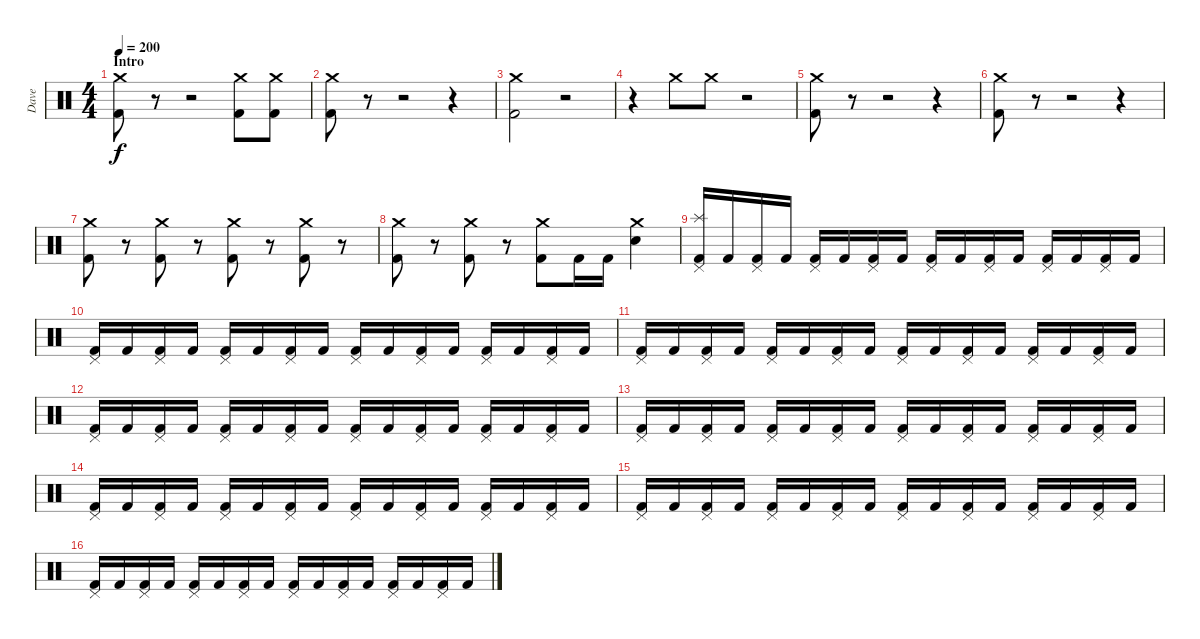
\track ("Dave" "Dave") {instrument percussion}
\staff {score}
\articulation defaults
\ts (4 4)
\section ("" "Intro")
\tempo 200
\clef neutral
\ks c
("Crash medium (hit)" "Kick (hit) 2").8{dy f} r.8 r.2 ("Crash medium (hit)" "Kick (hit) 2").8 ("Crash medium (hit)" "Kick (hit) 2").8 |
("Crash medium (hit)" "Kick (hit) 2").8 r.8 r.2 r.4 |
("Crash medium (hit)" "Kick (hit) 2").2 r.2 |
r.4 "Crash medium (hit)".8 "Crash medium (hit)".8 r.2 |
("Crash medium (hit)" "Kick (hit) 2").8 r.8 r.2 r.4 |
("Crash medium (hit)" "Kick (hit) 2").8 r.8 r.2 r.4 |
("Crash medium (hit)" "Kick (hit) 2").8 r.8 ("Crash medium (hit)" "Kick (hit) 2").8 r.8 ("Crash medium (hit)" "Kick (hit) 2").8 r.8 ("Crash medium (hit)" "Kick (hit) 2").8 r.8 |
("Crash medium (hit)" "Kick (hit) 2").8 r.8 ("Crash medium (hit)" "Kick (hit) 2").8 r.8 ("Crash medium (hit)" "Kick (hit) 2").8 "Kick (hit) 2".16 "Kick (hit) 2".16 ("Crash medium (hit)" "Snare (hit) 2").4 |
("Splash (hit)" "Pedal Hi-Hat (hit)" "Kick (hit) 2").16 "Kick (hit) 2".16 ("Pedal Hi-Hat (hit)" "Kick (hit) 2").16 "Kick (hit) 2".16 ("Pedal Hi-Hat (hit)" "Kick (hit) 2").16 "Kick (hit) 2".16 ("Pedal Hi-Hat (hit)" "Kick (hit) 2").16 "Kick (hit) 2".16 ("Pedal Hi-Hat (hit)" "Kick (hit) 2").16 "Kick (hit) 2".16 ("Pedal Hi-Hat (hit)" "Kick (hit) 2").16 "Kick (hit) 2".16 ("Pedal Hi-Hat (hit)" "Kick (hit) 2").16 "Kick (hit) 2".16 ("Pedal Hi-Hat (hit)" "Kick (hit) 2").16 "Kick (hit) 2".16 |
("Pedal Hi-Hat (hit)" "Kick (hit) 2").16 "Kick (hit) 2".16 ("Pedal Hi-Hat (hit)" "Kick (hit) 2").16 "Kick (hit) 2".16 ("Pedal Hi-Hat (hit)" "Kick (hit) 2").16 "Kick (hit) 2".16 ("Pedal Hi-Hat (hit)" "Kick (hit) 2").16 "Kick (hit) 2".16 ("Pedal Hi-Hat (hit)" "Kick (hit) 2").16 "Kick (hit) 2".16 ("Pedal Hi-Hat (hit)" "Kick (hit) 2").16 "Kick (hit) 2".16 ("Pedal Hi-Hat (hit)" "Kick (hit) 2").16 "Kick (hit) 2".16 ("Pedal Hi-Hat (hit)" "Kick (hit) 2").16 "Kick (hit) 2".16 |
("Pedal Hi-Hat (hit)" "Kick (hit) 2").16 "Kick (hit) 2".16 ("Pedal Hi-Hat (hit)" "Kick (hit) 2").16 "Kick (hit) 2".16 ("Pedal Hi-Hat (hit)" "Kick (hit) 2").16 "Kick (hit) 2".16 ("Pedal Hi-Hat (hit)" "Kick (hit) 2").16 "Kick (hit) 2".16 ("Pedal Hi-Hat (hit)" "Kick (hit) 2").16 "Kick (hit) 2".16 ("Pedal Hi-Hat (hit)" "Kick (hit) 2").16 "Kick (hit) 2".16 ("Pedal Hi-Hat (hit)" "Kick (hit) 2").16 "Kick (hit) 2".16 ("Pedal Hi-Hat (hit)" "Kick (hit) 2").16 "Kick (hit) 2".16 |
("Pedal Hi-Hat (hit)" "Kick (hit) 2").16 "Kick (hit) 2".16 ("Pedal Hi-Hat (hit)" "Kick (hit) 2").16 "Kick (hit) 2".16 ("Pedal Hi-Hat (hit)" "Kick (hit) 2").16 "Kick (hit) 2".16 ("Pedal Hi-Hat (hit)" "Kick (hit) 2").16 "Kick (hit) 2".16 ("Pedal Hi-Hat (hit)" "Kick (hit) 2").16 "Kick (hit) 2".16 ("Pedal Hi-Hat (hit)" "Kick (hit) 2").16 "Kick (hit) 2".16 ("Pedal Hi-Hat (hit)" "Kick (hit) 2").16 "Kick (hit) 2".16 ("Pedal Hi-Hat (hit)" "Kick (hit) 2").16 "Kick (hit) 2".16 |
("Pedal Hi-Hat (hit)" "Kick (hit) 2").16 "Kick (hit) 2".16 ("Pedal Hi-Hat (hit)" "Kick (hit) 2").16 "Kick (hit) 2".16 ("Pedal Hi-Hat (hit)" "Kick (hit) 2").16 "Kick (hit) 2".16 ("Pedal Hi-Hat (hit)" "Kick (hit) 2").16 "Kick (hit) 2".16 ("Pedal Hi-Hat (hit)" "Kick (hit) 2").16 "Kick (hit) 2".16 ("Pedal Hi-Hat (hit)" "Kick (hit) 2").16 "Kick (hit) 2".16 ("Pedal Hi-Hat (hit)" "Kick (hit) 2").16 "Kick (hit) 2".16 ("Pedal Hi-Hat (hit)" "Kick (hit) 2").16 "Kick (hit) 2".16 |
("Pedal Hi-Hat (hit)" "Kick (hit) 2").16 "Kick (hit) 2".16 ("Pedal Hi-Hat (hit)" "Kick (hit) 2").16 "Kick (hit) 2".16 ("Pedal Hi-Hat (hit)" "Kick (hit) 2").16 "Kick (hit) 2".16 ("Pedal Hi-Hat (hit)" "Kick (hit) 2").16 "Kick (hit) 2".16 ("Pedal Hi-Hat (hit)" "Kick (hit) 2").16 "Kick (hit) 2".16 ("Pedal Hi-Hat (hit)" "Kick (hit) 2").16 "Kick (hit) 2".16 ("Pedal Hi-Hat (hit)" "Kick (hit) 2").16 "Kick (hit) 2".16 ("Pedal Hi-Hat (hit)" "Kick (hit) 2").16 "Kick (hit) 2".16 |
("Pedal Hi-Hat (hit)" "Kick (hit) 2").16 "Kick (hit) 2".16 ("Pedal Hi-Hat (hit)" "Kick (hit) 2").16 "Kick (hit) 2".16 ("Pedal Hi-Hat (hit)" "Kick (hit) 2").16 "Kick (hit) 2".16 ("Pedal Hi-Hat (hit)" "Kick (hit) 2").16 "Kick (hit) 2".16 ("Pedal Hi-Hat (hit)" "Kick (hit) 2").16 "Kick (hit) 2".16 ("Pedal Hi-Hat (hit)" "Kick (hit) 2").16 "Kick (hit) 2".16 ("Pedal Hi-Hat (hit)" "Kick (hit) 2").16 "Kick (hit) 2".16 ("Pedal Hi-Hat (hit)" "Kick (hit) 2").16 "Kick (hit) 2".16 |
("Pedal Hi-Hat (hit)" "Kick (hit) 2").16 "Kick (hit) 2".16 ("Pedal Hi-Hat (hit)" "Kick (hit) 2").16 "Kick (hit) 2".16 ("Pedal Hi-Hat (hit)" "Kick (hit) 2").16 "Kick (hit) 2".16 ("Pedal Hi-Hat (hit)" "Kick (hit) 2").16 "Kick (hit) 2".16 ("Pedal Hi-Hat (hit)" "Kick (hit) 2").16 "Kick (hit) 2".16 ("Pedal Hi-Hat (hit)" "Kick (hit) 2").16 "Kick (hit) 2".16 ("Pedal Hi-Hat (hit)" "Kick (hit) 2").16 "Kick (hit) 2".16 ("Pedal Hi-Hat (hit)" "Kick (hit) 2").16 "Kick (hit) 2".16
